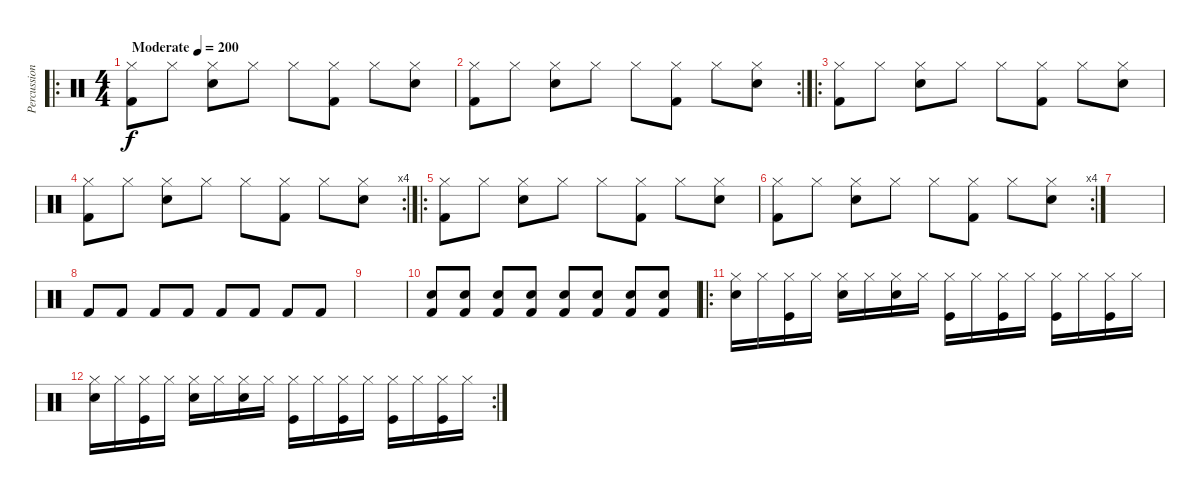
\track ("Percussion" "Percussion") {instrument percussion}
\staff {score}
\articulation defaults
\ro
\ts (4 4)
\tempo (200 "Moderate")
\clef neutral
\ks c
("Hi-Hat (closed)" "Kick (hit) 2").8{dy f} "Hi-Hat (closed)".8 ("Hi-Hat (closed)" "Snare (hit) 2").8 "Hi-Hat (closed)".8 "Hi-Hat (closed)".8 ("Hi-Hat (closed)" "Kick (hit) 2").8 "Hi-Hat (closed)".8 ("Hi-Hat (closed)" "Snare (hit) 2").8 |
\rc 2
("Hi-Hat (closed)" "Kick (hit) 2").8 "Hi-Hat (closed)".8 ("Hi-Hat (closed)" "Snare (hit) 2").8 "Hi-Hat (closed)".8 "Hi-Hat (closed)".8 ("Hi-Hat (closed)" "Kick (hit) 2").8 "Hi-Hat (closed)".8 ("Hi-Hat (closed)" "Snare (hit) 2").8 |
\ro
("Hi-Hat (closed)" "Kick (hit) 2").8 "Hi-Hat (closed)".8 ("Hi-Hat (closed)" "Snare (hit) 2").8 "Hi-Hat (closed)".8 "Hi-Hat (closed)".8 ("Hi-Hat (closed)" "Kick (hit) 2").8 "Hi-Hat (closed)".8 ("Hi-Hat (closed)" "Snare (hit) 2").8 |
\rc 4
("Hi-Hat (closed)" "Kick (hit) 2").8 "Hi-Hat (closed)".8 ("Hi-Hat (closed)" "Snare (hit) 2").8 "Hi-Hat (closed)".8 "Hi-Hat (closed)".8 ("Hi-Hat (closed)" "Kick (hit) 2").8 "Hi-Hat (closed)".8 ("Hi-Hat (closed)" "Snare (hit) 2").8 |
\ro
("Hi-Hat (closed)" "Kick (hit) 2").8 "Hi-Hat (closed)".8 ("Hi-Hat (closed)" "Snare (hit) 2").8 "Hi-Hat (closed)".8 "Hi-Hat (closed)".8 ("Hi-Hat (closed)" "Kick (hit) 2").8 "Hi-Hat (closed)".8 ("Hi-Hat (closed)" "Snare (hit) 2").8 |
\rc 4
("Hi-Hat (closed)" "Kick (hit) 2").8 "Hi-Hat (closed)".8 ("Hi-Hat (closed)" "Snare (hit) 2").8 "Hi-Hat (closed)".8 "Hi-Hat (closed)".8 ("Hi-Hat (closed)" "Kick (hit) 2").8 "Hi-Hat (closed)".8 ("Hi-Hat (closed)" "Snare (hit) 2").8 |
|
"Kick (hit) 2".8 "Kick (hit) 2".8 "Kick (hit) 2".8 "Kick (hit) 2".8 "Kick (hit) 2".8 "Kick (hit) 2".8 "Kick (hit) 2".8 "Kick (hit) 2".8 |
|
("Snare (hit) 2" "Kick (hit) 2").8 ("Snare (hit) 2" "Kick (hit) 2").8 ("Snare (hit) 2" "Kick (hit) 2").8 ("Snare (hit) 2" "Kick (hit) 2").8 ("Snare (hit) 2" "Kick (hit) 2").8 ("Snare (hit) 2" "Kick (hit) 2").8 ("Snare (hit) 2" "Kick (hit) 2").8 ("Snare (hit) 2" "Kick (hit) 2").8 |
\ro
("Hi-Hat (closed)" "Snare (hit) 2").16 "Hi-Hat (closed)".16 ("Hi-Hat (closed)" "Kick (hit)").16 "Hi-Hat (closed)".16 ("Hi-Hat (closed)" "Snare (hit) 2").16 "Hi-Hat (closed)".16 ("Hi-Hat (closed)" "Snare (hit) 2").16 "Hi-Hat (closed)".16 ("Hi-Hat (closed)" "Kick (hit)").16 "Hi-Hat (closed)".16 ("Hi-Hat (closed)" "Kick (hit)").16 "Hi-Hat (closed)".16 ("Hi-Hat (closed)" "Kick (hit)").16 "Hi-Hat (closed)".16 ("Hi-Hat (closed)" "Kick (hit)").16 "Hi-Hat (closed)".16 |
\rc 2
("Hi-Hat (closed)" "Snare (hit) 2").16 "Hi-Hat (closed)".16 ("Hi-Hat (closed)" "Kick (hit)").16 "Hi-Hat (closed)".16 ("Hi-Hat (closed)" "Snare (hit) 2").16 "Hi-Hat (closed)".16 ("Hi-Hat (closed)" "Snare (hit) 2").16 "Hi-Hat (closed)".16 ("Hi-Hat (closed)" "Kick (hit)").16 "Hi-Hat (closed)".16 ("Hi-Hat (closed)" "Kick (hit)").16 "Hi-Hat (closed)".16 ("Hi-Hat (closed)" "Kick (hit)").16 "Hi-Hat (closed)".16 ("Hi-Hat (closed)" "Kick (hit)").16 "Hi-Hat (closed)".16
